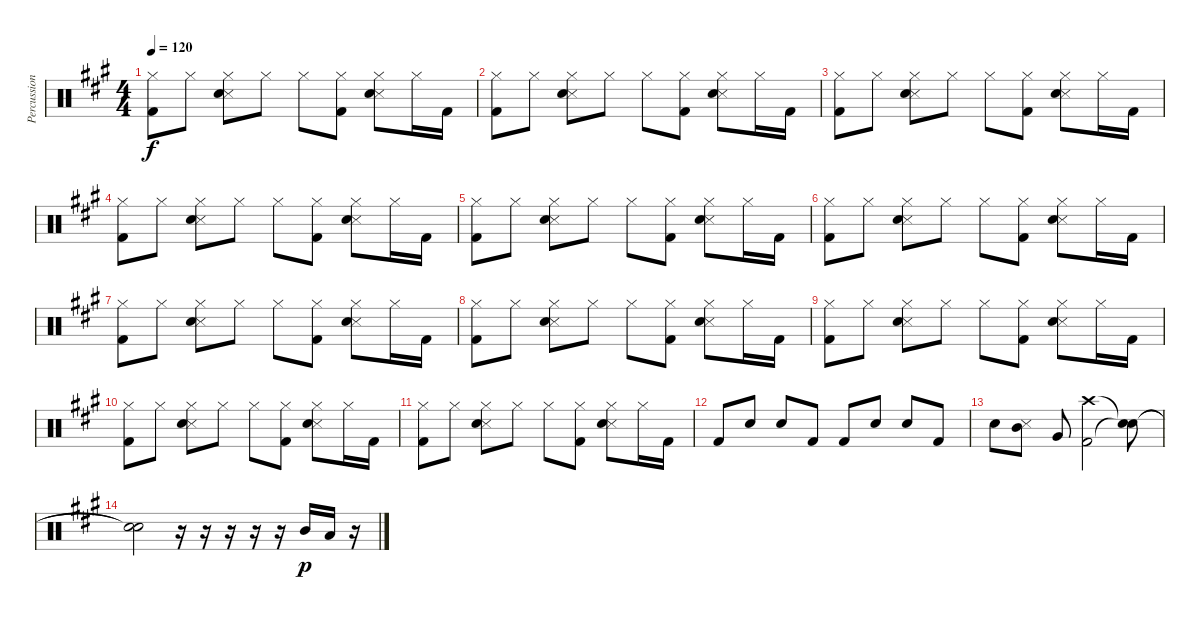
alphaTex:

\track ("Percussion" "Percussion") {instrument percussion}
\staff {score}
\articulation defaults
\ts (4 4)
\tempo 120
\clef neutral
\ks a
("Hi-Hat (closed)" "Kick (hit) 2").8{dy f} "Hi-Hat (closed)".8 ("Hi-Hat (closed)" "Snare (side stick) 3" "Electric Snare (hit)").8 "Hi-Hat (closed)".8 "Hi-Hat (closed)".8 ("Hi-Hat (closed)" "Kick (hit) 2").8 ("Hi-Hat (closed)" "Snare (side stick) 3" "Electric Snare (hit)").8 "Hi-Hat (closed)".16 "Kick (hit) 2".16 |
("Hi-Hat (closed)" "Kick (hit) 2").8 "Hi-Hat (closed)".8 ("Hi-Hat (closed)" "Snare (side stick) 3" "Electric Snare (hit)").8 "Hi-Hat (closed)".8 "Hi-Hat (closed)".8 ("Hi-Hat (closed)" "Kick (hit) 2").8 ("Hi-Hat (closed)" "Snare (side stick) 3" "Electric Snare (hit)").8 "Hi-Hat (closed)".16 "Kick (hit) 2".16 |
("Hi-Hat (closed)" "Kick (hit) 2").8 "Hi-Hat (closed)".8 ("Hi-Hat (closed)" "Snare (side stick) 3" "Electric Snare (hit)").8 "Hi-Hat (closed)".8 "Hi-Hat (closed)".8 ("Hi-Hat (closed)" "Kick (hit) 2").8 ("Hi-Hat (closed)" "Snare (side stick) 3" "Electric Snare (hit)").8 "Hi-Hat (closed)".16 "Kick (hit) 2".16 |
("Hi-Hat (closed)" "Kick (hit) 2").8 "Hi-Hat (closed)".8 ("Hi-Hat (closed)" "Snare (side stick) 3" "Electric Snare (hit)").8 "Hi-Hat (closed)".8 "Hi-Hat (closed)".8 ("Hi-Hat (closed)" "Kick (hit) 2").8 ("Hi-Hat (closed)" "Snare (side stick) 3" "Electric Snare (hit)").8 "Hi-Hat (closed)".16 "Kick (hit) 2".16 |
("Hi-Hat (closed)" "Kick (hit) 2").8 "Hi-Hat (closed)".8 ("Hi-Hat (closed)" "Snare (side stick) 3" "Electric Snare (hit)").8 "Hi-Hat (closed)".8 "Hi-Hat (closed)".8 ("Hi-Hat (closed)" "Kick (hit) 2").8 ("Hi-Hat (closed)" "Snare (side stick) 3" "Electric Snare (hit)").8 "Hi-Hat (closed)".16 "Kick (hit) 2".16 |
("Hi-Hat (closed)" "Kick (hit) 2").8 "Hi-Hat (closed)".8 ("Hi-Hat (closed)" "Snare (side stick) 3" "Electric Snare (hit)").8 "Hi-Hat (closed)".8 "Hi-Hat (closed)".8 ("Hi-Hat (closed)" "Kick (hit) 2").8 ("Hi-Hat (closed)" "Snare (side stick) 3" "Electric Snare (hit)").8 "Hi-Hat (closed)".16 "Kick (hit) 2".16 |
("Hi-Hat (closed)" "Kick (hit) 2").8 "Hi-Hat (closed)".8 ("Hi-Hat (closed)" "Snare (side stick) 3" "Electric Snare (hit)").8 "Hi-Hat (closed)".8 "Hi-Hat (closed)".8 ("Hi-Hat (closed)" "Kick (hit) 2").8 ("Hi-Hat (closed)" "Snare (side stick) 3" "Electric Snare (hit)").8 "Hi-Hat (closed)".16 "Kick (hit) 2".16 |
("Hi-Hat (closed)" "Kick (hit) 2").8 "Hi-Hat (closed)".8 ("Hi-Hat (closed)" "Snare (side stick) 3" "Electric Snare (hit)").8 "Hi-Hat (closed)".8 "Hi-Hat (closed)".8 ("Hi-Hat (closed)" "Kick (hit) 2").8 ("Hi-Hat (closed)" "Snare (side stick) 3" "Electric Snare (hit)").8 "Hi-Hat (closed)".16 "Kick (hit) 2".16 |
("Hi-Hat (closed)" "Kick (hit) 2").8 "Hi-Hat (closed)".8 ("Hi-Hat (closed)" "Snare (side stick) 3" "Electric Snare (hit)").8 "Hi-Hat (closed)".8 "Hi-Hat (closed)".8 ("Hi-Hat (closed)" "Kick (hit) 2").8 ("Hi-Hat (closed)" "Snare (side stick) 3" "Electric Snare (hit)").8 "Hi-Hat (closed)".16 "Kick (hit) 2".16 |
("Hi-Hat (closed)" "Kick (hit) 2").8 "Hi-Hat (closed)".8 ("Hi-Hat (closed)" "Snare (side stick) 3" "Electric Snare (hit)").8 "Hi-Hat (closed)".8 "Hi-Hat (closed)".8 ("Hi-Hat (closed)" "Kick (hit) 2").8 ("Hi-Hat (closed)" "Snare (side stick) 3" "Electric Snare (hit)").8 "Hi-Hat (closed)".16 "Kick (hit) 2".16 |
("Hi-Hat (closed)" "Kick (hit) 2").8 "Hi-Hat (closed)".8 ("Hi-Hat (closed)" "Snare (side stick) 3" "Electric Snare (hit)").8 "Hi-Hat (closed)".8 "Hi-Hat (closed)".8 ("Hi-Hat (closed)" "Kick (hit) 2").8 ("Hi-Hat (closed)" "Snare (side stick) 3" "Electric Snare (hit)").8 "Hi-Hat (closed)".16 "Kick (hit) 2".16 |
"Kick (hit) 2".8 "Snare (hit) 2".8 "Snare (hit) 2".8 "Kick (hit) 2".8 "Kick (hit) 2".8 "Snare (hit) 2".8 "Snare (hit) 2".8 "Kick (hit) 2".8 |
"Snare (hit) 2".8 ("Mid Tom (hit)" "Snare (side stick) 3").8 "Very Low Tom (hit)".8 ("Crash high (hit)" "Kick (hit) 2").2 ("Snare (hit)"{t} "Snare (hit)"{t}).8 |
("Snare (hit)"{t} "Snare (hit)"{t}).2 r.16 r.16 r.16 r.16 r.16 "Mid Tom (hit)".16{dy p} "Low Tom (hit)".16 r.16
